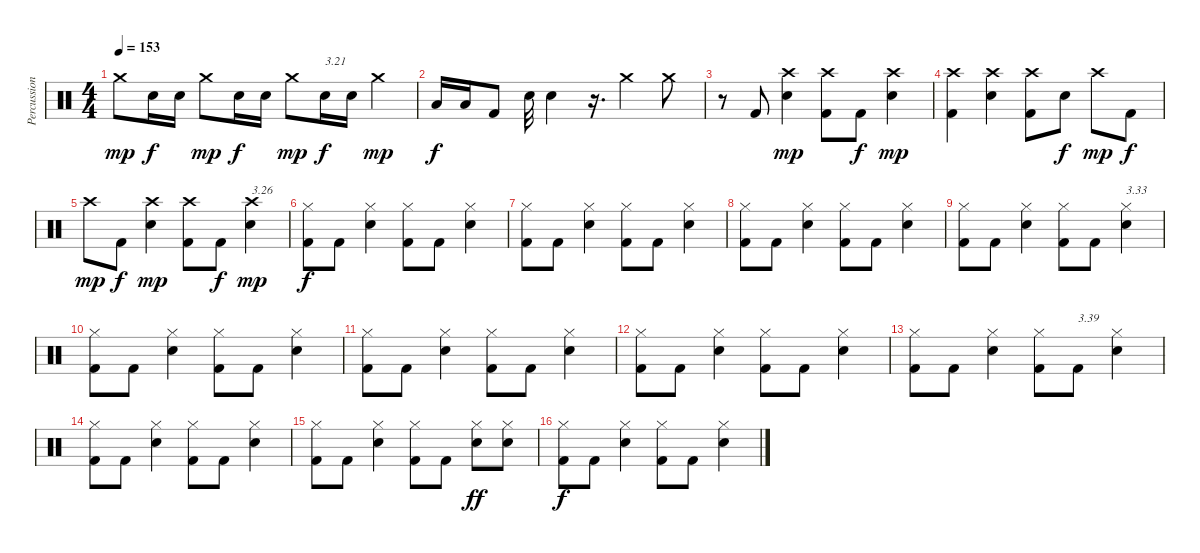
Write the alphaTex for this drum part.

\track ("Percussions" "Percussion") {instrument percussion}
\staff {score}
\articulation defaults
\ts (4 4)
\tempo 153
\clef neutral
\ks c "Crash medium (hit)".8{dy mp} "Electric Snare (hit)".16{dy f} "Electric Snare (hit)".16 "Crash medium (hit)".8{dy mp} "Electric Snare (hit)".16{dy f} "Electric Snare (hit)".16 "Crash medium (hit)".8{dy mp} "Electric Snare (hit)".16{txt "3.21" dy f} "Electric Snare (hit)".16 "Crash medium (hit)".4{dy mp}
|
"Low Floor Tom (hit)".16{dy f} "Low Floor Tom (hit)".16 "Kick (hit) 2".8 "Electric Snare (hit)".32 "Electric Snare (hit)".4 r.16{d} "Crash medium (hit)".4 "Crash medium (hit)".8 |
r.8 "Kick (hit) 2".8 ("Electric Snare (hit)" "Crash high (hit)").4{dy mp} ("Kick (hit) 2" "Crash high (hit)").8 "Kick (hit) 2".8{dy f} ("Electric Snare (hit)" "Crash high (hit)").4{dy mp} |
("Kick (hit) 2" "Crash high (hit)").4 ("Electric Snare (hit)" "Crash high (hit)").4 ("Kick (hit) 2" "Crash high (hit)").8 "Electric Snare (hit)".8{dy f} "Crash high (hit)".8{dy mp} "Kick (hit) 2".8{dy f} |
"Crash high (hit)".8{dy mp} "Kick (hit) 2".8{dy f} ("Electric Snare (hit)" "Crash high (hit)").4{dy mp} ("Kick (hit) 2" "Crash high (hit)").8 "Kick (hit) 2".8{dy f} ("Electric Snare (hit)" "Crash high (hit)").4{txt "3.26" dy mp} |
("Kick (hit) 2" "Hi-Hat (closed)").8{dy f} "Kick (hit) 2".8 ("Electric Snare (hit)" "Hi-Hat (closed)").4 ("Kick (hit) 2" "Hi-Hat (closed)").8 "Kick (hit) 2".8 ("Electric Snare (hit)" "Hi-Hat (closed)").4 |
("Kick (hit) 2" "Hi-Hat (closed)").8 "Kick (hit) 2".8 ("Electric Snare (hit)" "Hi-Hat (closed)").4 ("Kick (hit) 2" "Hi-Hat (closed)").8 "Kick (hit) 2".8 ("Electric Snare (hit)" "Hi-Hat (closed)").4 |
("Kick (hit) 2" "Hi-Hat (closed)").8 "Kick (hit) 2".8 ("Electric Snare (hit)" "Hi-Hat (closed)").4 ("Kick (hit) 2" "Hi-Hat (closed)").8 "Kick (hit) 2".8 ("Electric Snare (hit)" "Hi-Hat (closed)").4 |
("Kick (hit) 2" "Hi-Hat (closed)").8 "Kick (hit) 2".8 ("Electric Snare (hit)" "Hi-Hat (closed)").4 ("Kick (hit) 2" "Hi-Hat (closed)").8 "Kick (hit) 2".8 ("Electric Snare (hit)" "Hi-Hat (closed)").4{txt "3.33"} |
("Kick (hit) 2" "Hi-Hat (closed)").8 "Kick (hit) 2".8 ("Electric Snare (hit)" "Hi-Hat (closed)").4 ("Kick (hit) 2" "Hi-Hat (closed)").8 "Kick (hit) 2".8 ("Electric Snare (hit)" "Hi-Hat (closed)").4 |
("Kick (hit) 2" "Hi-Hat (closed)").8 "Kick (hit) 2".8 ("Electric Snare (hit)" "Hi-Hat (closed)").4 ("Kick (hit) 2" "Hi-Hat (closed)").8 "Kick (hit) 2".8 ("Electric Snare (hit)" "Hi-Hat (closed)").4 |
("Kick (hit) 2" "Hi-Hat (closed)").8 "Kick (hit) 2".8 ("Electric Snare (hit)" "Hi-Hat (closed)").4 ("Kick (hit) 2" "Hi-Hat (closed)").8 "Kick (hit) 2".8 ("Electric Snare (hit)" "Hi-Hat (closed)").4 |
("Kick (hit) 2" "Hi-Hat (closed)").8 "Kick (hit) 2".8 ("Electric Snare (hit)" "Hi-Hat (closed)").4 ("Kick (hit) 2" "Hi-Hat (closed)").8 "Kick (hit) 2".8{txt "3.39"} ("Electric Snare (hit)" "Hi-Hat (closed)").4 |
("Kick (hit) 2" "Hi-Hat (closed)").8 "Kick (hit) 2".8 ("Electric Snare (hit)" "Hi-Hat (closed)").4 ("Kick (hit) 2" "Hi-Hat (closed)").8 "Kick (hit) 2".8 ("Electric Snare (hit)" "Hi-Hat (closed)").4 |
("Kick (hit) 2" "Hi-Hat (closed)").8 "Kick (hit) 2".8 ("Electric Snare (hit)" "Hi-Hat (closed)").4 ("Kick (hit) 2" "Hi-Hat (closed)").8 "Kick (hit) 2".8 ("Electric Snare (hit)" "Hi-Hat (closed)").8{dy ff} ("Electric Snare (hit)" "Hi-Hat (closed)").8 |
("Kick (hit) 2" "Hi-Hat (closed)").8{dy f} "Kick (hit) 2".8 ("Electric Snare (hit)" "Hi-Hat (closed)").4 ("Kick (hit) 2" "Hi-Hat (closed)").8 "Kick (hit) 2".8 ("Electric Snare (hit)" "Hi-Hat (closed)").4
